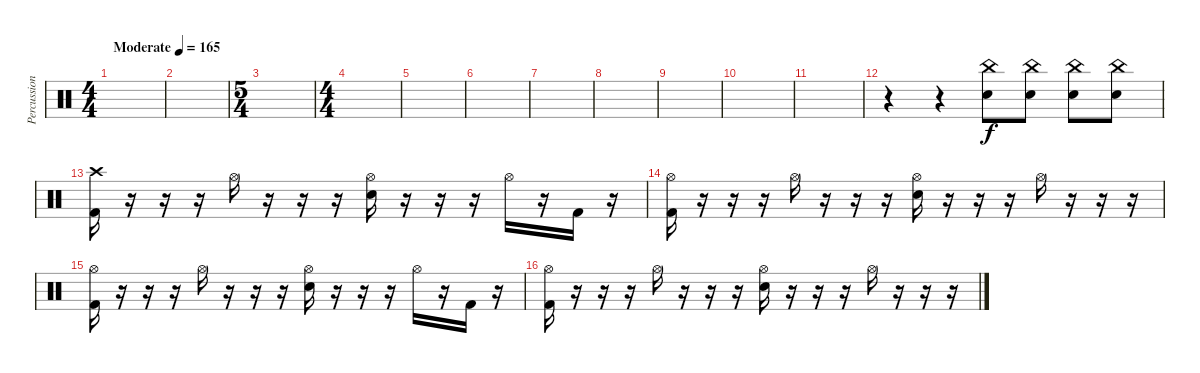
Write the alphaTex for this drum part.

\track ("Percussion" "Percussion") {instrument percussion}
\staff {score}
\articulation defaults
\ts (4 4)
\tempo (165 "Moderate")
\clef neutral
\ks c
|
|
\ts (5 4)
|
\ts (4 4)
|
|
|
|
|
|
|
|
r.4 r.4 ("China (hit)" "Snare (hit) 2").8 ("China (hit)" "Snare (hit) 2").8 ("China (hit)" "Snare (hit) 2").8 ("China (hit)" "Snare (hit) 2").8 |
("Crash high (hit)" "Kick (hit) 2").16 r.16 r.16 r.16 "Hi-Hat (open)".16 r.16 r.16 r.16 ("Hi-Hat (open)" "Snare (hit) 2").16 r.16 r.16 r.16 "Hi-Hat (open)".16 r.16 "Kick (hit) 2".16 r.16 |
("Hi-Hat (open)" "Kick (hit) 2").16 r.16 r.16 r.16 "Hi-Hat (open)".16 r.16 r.16 r.16 ("Hi-Hat (open)" "Snare (hit) 2").16 r.16 r.16 r.16 "Hi-Hat (open)".16 r.16 r.16 r.16 |
("Hi-Hat (open)" "Kick (hit) 2").16 r.16 r.16 r.16 "Hi-Hat (open)".16 r.16 r.16 r.16 ("Hi-Hat (open)" "Snare (hit) 2").16 r.16 r.16 r.16 "Hi-Hat (open)".16 r.16 "Kick (hit) 2".16 r.16 |
("Hi-Hat (open)" "Kick (hit) 2").16 r.16 r.16 r.16 "Hi-Hat (open)".16 r.16 r.16 r.16 ("Hi-Hat (open)" "Snare (hit) 2").16 r.16 r.16 r.16 "Hi-Hat (open)".16 r.16 r.16 r.16
